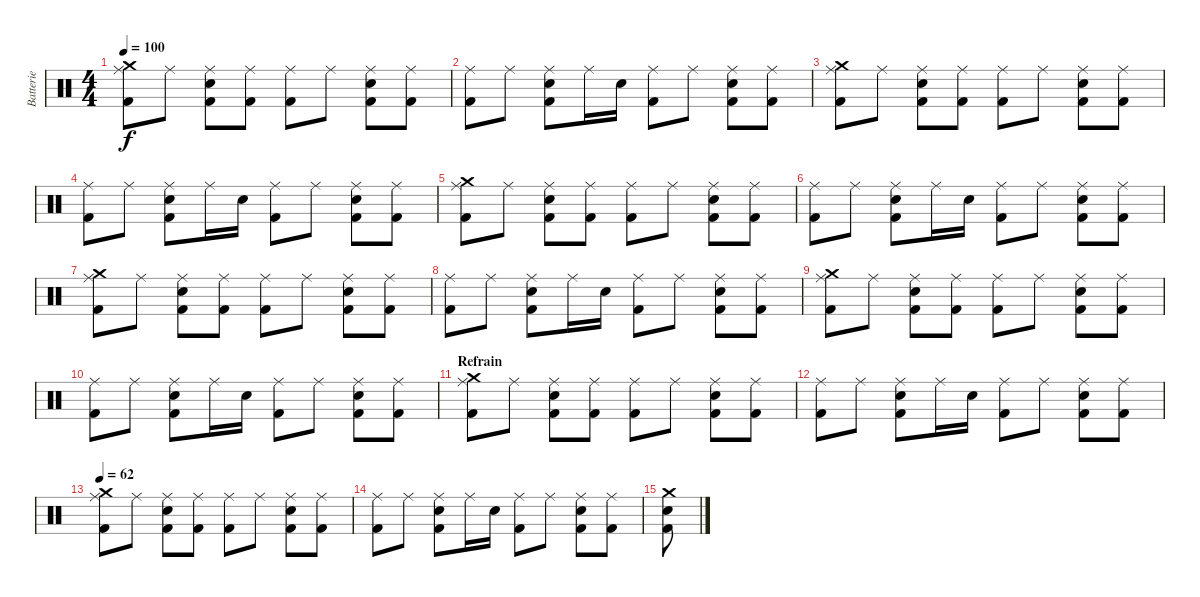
\track ("Batterie" "Batterie") {instrument percussion}
\staff {score}
\articulation defaults
\ts (4 4)
\tempo 100
\clef neutral
\ks c
("Crash medium (hit)" "Ride (middle)" "Kick (hit) 2").8{dy f} "Ride (middle)".8 ("Ride (middle)" "Snare (hit) 2" "Kick (hit) 2").8 ("Ride (middle)" "Kick (hit) 2").8 ("Ride (middle)" "Kick (hit) 2").8 "Ride (middle)".8 ("Ride (middle)" "Snare (hit) 2" "Kick (hit) 2").8 ("Ride (middle)" "Kick (hit) 2").8 |
("Ride (middle)" "Kick (hit) 2").8 "Ride (middle)".8 ("Ride (middle)" "Snare (hit) 2" "Kick (hit) 2").8 "Ride (middle)".16 "Snare (hit) 2".16 ("Ride (middle)" "Kick (hit) 2").8 "Ride (middle)".8 ("Ride (middle)" "Snare (hit) 2" "Kick (hit) 2").8 ("Ride (middle)" "Kick (hit) 2").8 |
("Crash medium (hit)" "Ride (middle)" "Kick (hit) 2").8 "Ride (middle)".8 ("Ride (middle)" "Snare (hit) 2" "Kick (hit) 2").8 ("Ride (middle)" "Kick (hit) 2").8 ("Ride (middle)" "Kick (hit) 2").8 "Ride (middle)".8 ("Ride (middle)" "Snare (hit) 2" "Kick (hit) 2").8 ("Ride (middle)" "Kick (hit) 2").8 |
("Ride (middle)" "Kick (hit) 2").8 "Ride (middle)".8 ("Ride (middle)" "Snare (hit) 2" "Kick (hit) 2").8 "Ride (middle)".16 "Snare (hit) 2".16 ("Ride (middle)" "Kick (hit) 2").8 "Ride (middle)".8 ("Ride (middle)" "Snare (hit) 2" "Kick (hit) 2").8 ("Ride (middle)" "Kick (hit) 2").8 |
("Crash medium (hit)" "Ride (middle)" "Kick (hit) 2").8 "Ride (middle)".8 ("Ride (middle)" "Snare (hit) 2" "Kick (hit) 2").8 ("Ride (middle)" "Kick (hit) 2").8 ("Ride (middle)" "Kick (hit) 2").8 "Ride (middle)".8 ("Ride (middle)" "Snare (hit) 2" "Kick (hit) 2").8 ("Ride (middle)" "Kick (hit) 2").8 |
("Ride (middle)" "Kick (hit) 2").8 "Ride (middle)".8 ("Ride (middle)" "Snare (hit) 2" "Kick (hit) 2").8 "Ride (middle)".16 "Snare (hit) 2".16 ("Ride (middle)" "Kick (hit) 2").8 "Ride (middle)".8 ("Ride (middle)" "Snare (hit) 2" "Kick (hit) 2").8 ("Ride (middle)" "Kick (hit) 2").8 |
("Crash medium (hit)" "Ride (middle)" "Kick (hit) 2").8 "Ride (middle)".8 ("Ride (middle)" "Snare (hit) 2" "Kick (hit) 2").8 ("Ride (middle)" "Kick (hit) 2").8 ("Ride (middle)" "Kick (hit) 2").8 "Ride (middle)".8 ("Ride (middle)" "Snare (hit) 2" "Kick (hit) 2").8 ("Ride (middle)" "Kick (hit) 2").8 |
("Ride (middle)" "Kick (hit) 2").8 "Ride (middle)".8 ("Ride (middle)" "Snare (hit) 2" "Kick (hit) 2").8 "Ride (middle)".16 "Snare (hit) 2".16 ("Ride (middle)" "Kick (hit) 2").8 "Ride (middle)".8 ("Ride (middle)" "Snare (hit) 2" "Kick (hit) 2").8 ("Ride (middle)" "Kick (hit) 2").8 |
("Crash medium (hit)" "Ride (middle)" "Kick (hit) 2").8 "Ride (middle)".8 ("Ride (middle)" "Snare (hit) 2" "Kick (hit) 2").8 ("Ride (middle)" "Kick (hit) 2").8 ("Ride (middle)" "Kick (hit) 2").8 "Ride (middle)".8 ("Ride (middle)" "Snare (hit) 2" "Kick (hit) 2").8 ("Ride (middle)" "Kick (hit) 2").8 |
("Ride (middle)" "Kick (hit) 2").8 "Ride (middle)".8 ("Ride (middle)" "Snare (hit) 2" "Kick (hit) 2").8 "Ride (middle)".16 "Snare (hit) 2".16 ("Ride (middle)" "Kick (hit) 2").8 "Ride (middle)".8 ("Ride (middle)" "Snare (hit) 2" "Kick (hit) 2").8 ("Ride (middle)" "Kick (hit) 2").8 |
\section ("" "Refrain")
("Crash medium (hit)" "Ride (middle)" "Kick (hit) 2").8 "Ride (middle)".8 ("Ride (middle)" "Snare (hit) 2" "Kick (hit) 2").8 ("Ride (middle)" "Kick (hit) 2").8 ("Ride (middle)" "Kick (hit) 2").8 "Ride (middle)".8 ("Ride (middle)" "Snare (hit) 2" "Kick (hit) 2").8 ("Ride (middle)" "Kick (hit) 2").8 |
("Ride (middle)" "Kick (hit) 2").8 "Ride (middle)".8 ("Ride (middle)" "Snare (hit) 2" "Kick (hit) 2").8 "Ride (middle)".16 "Snare (hit) 2".16 ("Ride (middle)" "Kick (hit) 2").8 "Ride (middle)".8 ("Ride (middle)" "Snare (hit) 2" "Kick (hit) 2").8 ("Ride (middle)" "Kick (hit) 2").8 |
\tempo 62
("Crash medium (hit)" "Ride (middle)" "Kick (hit) 2").8 "Ride (middle)".8 ("Ride (middle)" "Snare (hit) 2" "Kick (hit) 2").8 ("Ride (middle)" "Kick (hit) 2").8 ("Ride (middle)" "Kick (hit) 2").8 "Ride (middle)".8 ("Ride (middle)" "Snare (hit) 2" "Kick (hit) 2").8 ("Ride (middle)" "Kick (hit) 2").8 |
("Ride (middle)" "Kick (hit) 2").8 "Ride (middle)".8 ("Ride (middle)" "Snare (hit) 2" "Kick (hit) 2").8 "Ride (middle)".16 "Snare (hit) 2".16 ("Ride (middle)" "Kick (hit) 2").8 "Ride (middle)".8 ("Ride (middle)" "Snare (hit) 2" "Kick (hit) 2").8 ("Ride (middle)" "Kick (hit) 2").8 |
("Crash medium (hit)" "Snare (hit) 2" "Kick (hit) 2").8
